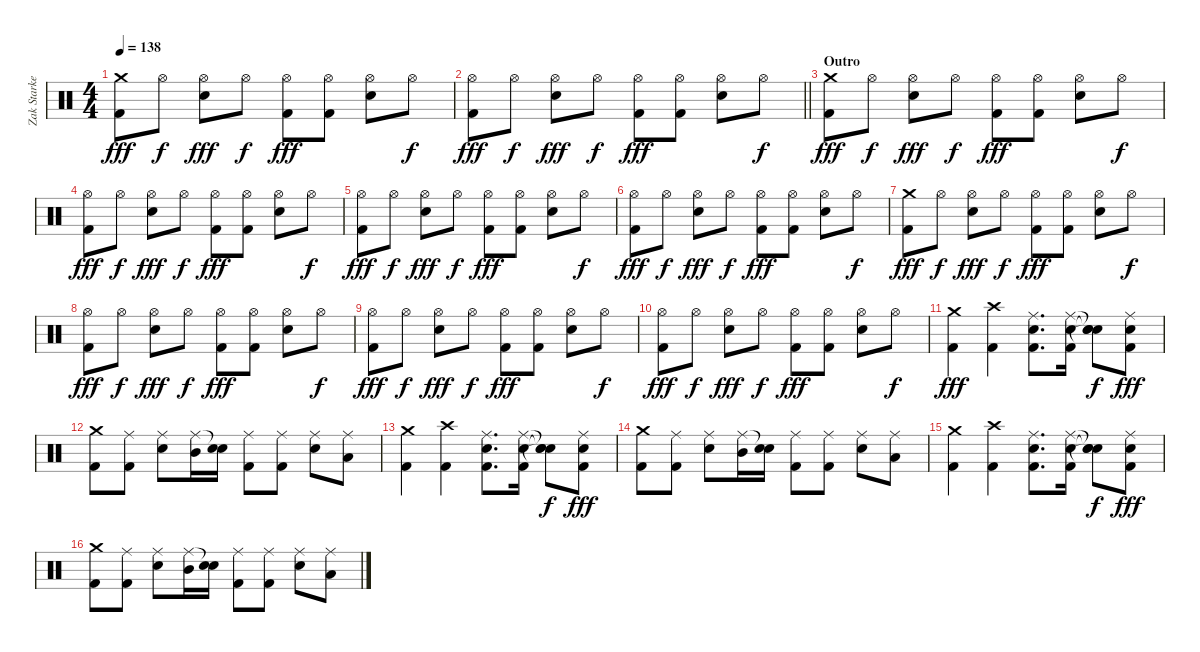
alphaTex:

\track ("Zak Starkey" "Zak Starke") {instrument percussion}
\staff {score}
\articulation defaults
\ts (4 4)
\tempo 138
\clef neutral
\ks c
("Crash medium (hit)" "Kick (hit) 2").8{dy fff} "Hi-Hat (open)".8{dy f} ("Hi-Hat (open)" "Snare (hit) 2").8{dy fff} "Hi-Hat (open)".8{dy f} ("Hi-Hat (open)" "Kick (hit) 2").8{dy fff} ("Hi-Hat (open)" "Kick (hit) 2").8 ("Hi-Hat (open)" "Snare (hit) 2").8 "Hi-Hat (open)".8{dy f} |
\barLineRight lightlight
("Hi-Hat (open)" "Kick (hit) 2").8{dy fff} "Hi-Hat (open)".8{dy f} ("Hi-Hat (open)" "Snare (hit) 2").8{dy fff} "Hi-Hat (open)".8{dy f} ("Hi-Hat (open)" "Kick (hit) 2").8{dy fff} ("Hi-Hat (open)" "Kick (hit) 2").8 ("Hi-Hat (open)" "Snare (hit) 2").8 "Hi-Hat (open)".8{dy f} |
\section ("" "Outro")
("Crash medium (hit)" "Kick (hit) 2").8{dy fff} "Hi-Hat (open)".8{dy f} ("Hi-Hat (open)" "Snare (hit) 2").8{dy fff} "Hi-Hat (open)".8{dy f} ("Hi-Hat (open)" "Kick (hit) 2").8{dy fff} ("Hi-Hat (open)" "Kick (hit) 2").8 ("Hi-Hat (open)" "Snare (hit) 2").8 "Hi-Hat (open)".8{dy f} |
("Hi-Hat (open)" "Kick (hit) 2").8{dy fff} "Hi-Hat (open)".8{dy f} ("Hi-Hat (open)" "Snare (hit) 2").8{dy fff} "Hi-Hat (open)".8{dy f} ("Hi-Hat (open)" "Kick (hit) 2").8{dy fff} ("Hi-Hat (open)" "Kick (hit) 2").8 ("Hi-Hat (open)" "Snare (hit) 2").8 "Hi-Hat (open)".8{dy f} |
("Hi-Hat (open)" "Kick (hit) 2").8{dy fff} "Hi-Hat (open)".8{dy f} ("Hi-Hat (open)" "Snare (hit) 2").8{dy fff} "Hi-Hat (open)".8{dy f} ("Hi-Hat (open)" "Kick (hit) 2").8{dy fff} ("Hi-Hat (open)" "Kick (hit) 2").8 ("Hi-Hat (open)" "Snare (hit) 2").8 "Hi-Hat (open)".8{dy f} |
("Hi-Hat (open)" "Kick (hit) 2").8{dy fff} "Hi-Hat (open)".8{dy f} ("Hi-Hat (open)" "Snare (hit) 2").8{dy fff} "Hi-Hat (open)".8{dy f} ("Hi-Hat (open)" "Kick (hit) 2").8{dy fff} ("Hi-Hat (open)" "Kick (hit) 2").8 ("Hi-Hat (open)" "Snare (hit) 2").8 "Hi-Hat (open)".8{dy f} |
("Crash medium (hit)" "Kick (hit) 2").8{dy fff} "Hi-Hat (open)".8{dy f} ("Hi-Hat (open)" "Snare (hit) 2").8{dy fff} "Hi-Hat (open)".8{dy f} ("Hi-Hat (open)" "Kick (hit) 2").8{dy fff} ("Hi-Hat (open)" "Kick (hit) 2").8 ("Hi-Hat (open)" "Snare (hit) 2").8 "Hi-Hat (open)".8{dy f} |
("Hi-Hat (open)" "Kick (hit) 2").8{dy fff} "Hi-Hat (open)".8{dy f} ("Hi-Hat (open)" "Snare (hit) 2").8{dy fff} "Hi-Hat (open)".8{dy f} ("Hi-Hat (open)" "Kick (hit) 2").8{dy fff} ("Hi-Hat (open)" "Kick (hit) 2").8 ("Hi-Hat (open)" "Snare (hit) 2").8 "Hi-Hat (open)".8{dy f} |
("Hi-Hat (open)" "Kick (hit) 2").8{dy fff} "Hi-Hat (open)".8{dy f} ("Hi-Hat (open)" "Snare (hit) 2").8{dy fff} "Hi-Hat (open)".8{dy f} ("Hi-Hat (open)" "Kick (hit) 2").8{dy fff} ("Hi-Hat (open)" "Kick (hit) 2").8 ("Hi-Hat (open)" "Snare (hit) 2").8 "Hi-Hat (open)".8{dy f} |
("Hi-Hat (open)" "Kick (hit) 2").8{dy fff} "Hi-Hat (open)".8{dy f} ("Hi-Hat (open)" "Snare (hit) 2").8{dy fff} "Hi-Hat (open)".8{dy f} ("Hi-Hat (open)" "Kick (hit) 2").8{dy fff} ("Hi-Hat (open)" "Kick (hit) 2").8 ("Hi-Hat (open)" "Snare (hit) 2").8 "Hi-Hat (open)".8{dy f} |
("Crash medium (hit)" "Kick (hit) 2").4{dy fff} ("Crash high (hit)" "Kick (hit) 2").4 ("Ride (middle)" "Snare (hit) 2" "Kick (hit) 2").8{d} ("Ride (middle)" "Snare (hit) 2" "Kick (hit) 2").16 ("Snare (hit)"{t} "Snare (hit)"{t} "Snare (hit)"{t}).8{dy f} ("Ride (middle)" "Snare (hit) 2" "Kick (hit) 2").8{dy fff} |
("Crash medium (hit)" "Kick (hit) 2").8 ("Ride (middle)" "Kick (hit) 2").8 ("Ride (middle)" "Snare (hit) 2").8 ("Ride (middle)" "Mid Tom (hit)").16 ("Snare (hit)"{t} "Snare (hit) 2").16 ("Ride (middle)" "Kick (hit) 2").8 ("Ride (middle)" "Kick (hit) 2").8 ("Ride (middle)" "Snare (hit) 2").8 ("Ride (middle)" "Low Tom (hit)").8 |
("Crash medium (hit)" "Kick (hit) 2").4 ("Crash high (hit)" "Kick (hit) 2").4 ("Ride (middle)" "Snare (hit) 2" "Kick (hit) 2").8{d} ("Ride (middle)" "Snare (hit) 2" "Kick (hit) 2").16 ("Snare (hit)"{t} "Snare (hit)"{t} "Snare (hit)"{t}).8{dy f} ("Ride (middle)" "Snare (hit) 2" "Kick (hit) 2").8{dy fff} |
("Crash medium (hit)" "Kick (hit) 2").8 ("Ride (middle)" "Kick (hit) 2").8 ("Ride (middle)" "Snare (hit) 2").8 ("Ride (middle)" "Mid Tom (hit)").16 ("Snare (hit)"{t} "Snare (hit) 2").16 ("Ride (middle)" "Kick (hit) 2").8 ("Ride (middle)" "Kick (hit) 2").8 ("Ride (middle)" "Snare (hit) 2").8 ("Ride (middle)" "Low Tom (hit)").8 |
("Crash medium (hit)" "Kick (hit) 2").4 ("Crash high (hit)" "Kick (hit) 2").4 ("Ride (middle)" "Snare (hit) 2" "Kick (hit) 2").8{d} ("Ride (middle)" "Snare (hit) 2" "Kick (hit) 2").16 ("Snare (hit)"{t} "Snare (hit)"{t} "Snare (hit)"{t}).8{dy f} ("Ride (middle)" "Snare (hit) 2" "Kick (hit) 2").8{dy fff} |
("Crash medium (hit)" "Kick (hit) 2").8 ("Ride (middle)" "Kick (hit) 2").8 ("Ride (middle)" "Snare (hit) 2").8 ("Ride (middle)" "Mid Tom (hit)").16 ("Snare (hit)"{t} "Snare (hit) 2").16 ("Ride (middle)" "Kick (hit) 2").8 ("Ride (middle)" "Kick (hit) 2").8 ("Ride (middle)" "Snare (hit) 2").8 ("Ride (middle)" "Low Tom (hit)").8
